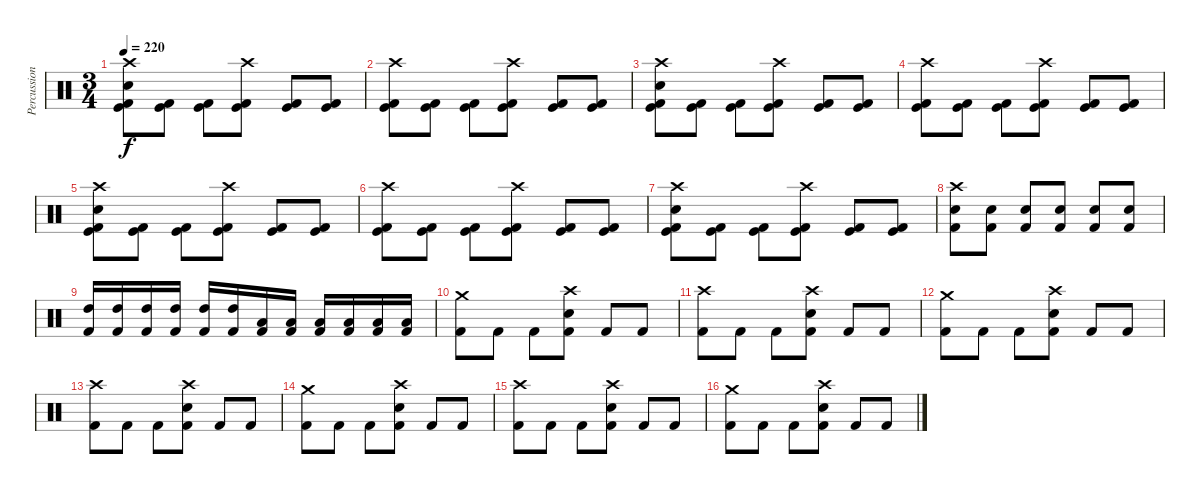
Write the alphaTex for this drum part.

\track ("Percussion" "Percussion") {instrument percussion}
\staff {score}
\articulation defaults
\ts (3 4)
\tempo 220
\clef neutral
\ks c
("Crash high (hit)" "Electric Snare (hit)" "Kick (hit)" "Kick (hit) 2").8{dy f} ("Kick (hit)" "Kick (hit) 2").8 ("Kick (hit)" "Kick (hit) 2").8 ("Crash high (hit)" "Kick (hit)" "Kick (hit) 2").8 ("Kick (hit)" "Kick (hit) 2").8 ("Kick (hit)" "Kick (hit) 2").8 |
("Crash high (hit)" "Kick (hit)" "Kick (hit) 2").8 ("Kick (hit)" "Kick (hit) 2").8 ("Kick (hit)" "Kick (hit) 2").8 ("Crash high (hit)" "Kick (hit)" "Kick (hit) 2").8 ("Kick (hit)" "Kick (hit) 2").8 ("Kick (hit)" "Kick (hit) 2").8 |
("Crash high (hit)" "Electric Snare (hit)" "Kick (hit)" "Kick (hit) 2").8 ("Kick (hit)" "Kick (hit) 2").8 ("Kick (hit)" "Kick (hit) 2").8 ("Crash high (hit)" "Kick (hit)" "Kick (hit) 2").8 ("Kick (hit)" "Kick (hit) 2").8 ("Kick (hit)" "Kick (hit) 2").8 |
("Crash high (hit)" "Kick (hit)" "Kick (hit) 2").8 ("Kick (hit)" "Kick (hit) 2").8 ("Kick (hit)" "Kick (hit) 2").8 ("Crash high (hit)" "Kick (hit)" "Kick (hit) 2").8 ("Kick (hit)" "Kick (hit) 2").8 ("Kick (hit)" "Kick (hit) 2").8 |
("Crash high (hit)" "Electric Snare (hit)" "Kick (hit)" "Kick (hit) 2").8 ("Kick (hit)" "Kick (hit) 2").8 ("Kick (hit)" "Kick (hit) 2").8 ("Crash high (hit)" "Kick (hit)" "Kick (hit) 2").8 ("Kick (hit)" "Kick (hit) 2").8 ("Kick (hit)" "Kick (hit) 2").8 |
("Crash high (hit)" "Kick (hit)" "Kick (hit) 2").8 ("Kick (hit)" "Kick (hit) 2").8 ("Kick (hit)" "Kick (hit) 2").8 ("Crash high (hit)" "Kick (hit)" "Kick (hit) 2").8 ("Kick (hit)" "Kick (hit) 2").8 ("Kick (hit)" "Kick (hit) 2").8 |
("Crash high (hit)" "Electric Snare (hit)" "Kick (hit)" "Kick (hit) 2").8 ("Kick (hit)" "Kick (hit) 2").8 ("Kick (hit)" "Kick (hit) 2").8 ("Crash high (hit)" "Kick (hit)" "Kick (hit) 2").8 ("Kick (hit)" "Kick (hit) 2").8 ("Kick (hit)" "Kick (hit) 2").8 |
("Crash high (hit)" "Electric Snare (hit)" "Kick (hit) 2").8 ("Electric Snare (hit)" "Kick (hit) 2").8 ("Electric Snare (hit)" "Kick (hit) 2").8 ("Electric Snare (hit)" "Kick (hit) 2").8 ("Electric Snare (hit)" "Kick (hit) 2").8 ("Electric Snare (hit)" "Kick (hit) 2").8 |
("High Tom (hit)" "Kick (hit) 2").16 ("High Tom (hit)" "Kick (hit) 2").16 ("High Tom (hit)" "Kick (hit) 2").16 ("High Tom (hit)" "Kick (hit) 2").16 ("High Tom (hit)" "Kick (hit) 2").16 ("High Tom (hit)" "Kick (hit) 2").16 ("Low Tom (hit)" "Kick (hit) 2").16 ("Low Tom (hit)" "Kick (hit) 2").16 ("Low Tom (hit)" "Kick (hit) 2").16 ("Low Floor Tom (hit)" "Kick (hit) 2").16 ("Low Floor Tom (hit)" "Kick (hit) 2").16 ("Low Floor Tom (hit)" "Kick (hit) 2").16 |
("Crash medium (hit)" "Kick (hit) 2").8 "Kick (hit) 2".8 "Kick (hit) 2".8 ("Crash high (hit)" "Electric Snare (hit)" "Kick (hit) 2").8 "Kick (hit) 2".8 "Kick (hit) 2".8 |
("Crash high (hit)" "Kick (hit) 2").8 "Kick (hit) 2".8 "Kick (hit) 2".8 ("Crash high (hit)" "Electric Snare (hit)" "Kick (hit) 2").8 "Kick (hit) 2".8 "Kick (hit) 2".8 |
("Crash medium (hit)" "Kick (hit) 2").8 "Kick (hit) 2".8 "Kick (hit) 2".8 ("Crash high (hit)" "Electric Snare (hit)" "Kick (hit) 2").8 "Kick (hit) 2".8 "Kick (hit) 2".8 |
("Crash high (hit)" "Kick (hit) 2").8 "Kick (hit) 2".8 "Kick (hit) 2".8 ("Crash high (hit)" "Electric Snare (hit)" "Kick (hit) 2").8 "Kick (hit) 2".8 "Kick (hit) 2".8 |
("Crash medium (hit)" "Kick (hit) 2").8 "Kick (hit) 2".8 "Kick (hit) 2".8 ("Crash high (hit)" "Electric Snare (hit)" "Kick (hit) 2").8 "Kick (hit) 2".8 "Kick (hit) 2".8 |
("Crash high (hit)" "Kick (hit) 2").8 "Kick (hit) 2".8 "Kick (hit) 2".8 ("Crash high (hit)" "Electric Snare (hit)" "Kick (hit) 2").8 "Kick (hit) 2".8 "Kick (hit) 2".8 |
("Crash medium (hit)" "Kick (hit) 2").8 "Kick (hit) 2".8 "Kick (hit) 2".8 ("Crash high (hit)" "Electric Snare (hit)" "Kick (hit) 2").8 "Kick (hit) 2".8 "Kick (hit) 2".8
